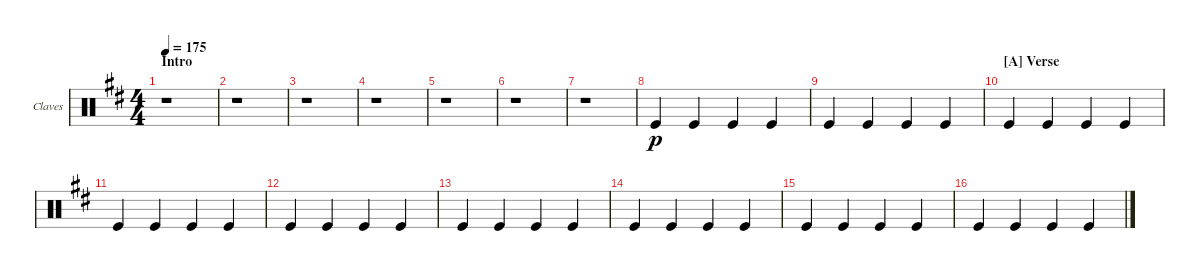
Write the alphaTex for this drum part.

\defaultSystemsLayout 4
\bracketExtendMode groupsimilarinstruments
\firstSystemTrackNameOrientation horizontal
\otherSystemsTrackNameOrientation horizontal
\track ("Claves" "Claves") {instrument percussion}
\staff {score}
\articulation defaults
\ts (4 4)
\section ("" "Intro")
\tempo 175
\clef neutral
\scale
0.517241
\ks d
r.1{dy p} |
\scale
0.241379 r.1 |
\scale
0.241379 r.1 |
\scale
0.333333 r.1 |
\scale
0.333333 r.1 |
\scale
0.333333 r.1 |
\scale
0.333333 r.1 |
\scale
0.333333 "Kick (hit)".4 "Kick (hit)".4 "Kick (hit)".4 "Kick (hit)".4 |
\scale
0.333333 "Kick (hit)".4 "Kick (hit)".4 "Kick (hit)".4 "Kick (hit)".4 |
\section ("A" "Verse")
\scale
0.333333 "Kick (hit)".4 "Kick (hit)".4 "Kick (hit)".4 "Kick (hit)".4 |
\scale
0.333333 "Kick (hit)".4 "Kick (hit)".4 "Kick (hit)".4 "Kick (hit)".4 |
\scale
0.333333 "Kick (hit)".4 "Kick (hit)".4 "Kick (hit)".4 "Kick (hit)".4 |
\scale
0.333333 "Kick (hit)".4 "Kick (hit)".4 "Kick (hit)".4 "Kick (hit)".4 |
\scale
0.333333 "Kick (hit)".4 "Kick (hit)".4 "Kick (hit)".4 "Kick (hit)".4 |
\scale
0.333333 "Kick (hit)".4 "Kick (hit)".4 "Kick (hit)".4 "Kick (hit)".4 |
\scale
0.333333 "Kick (hit)".4 "Kick (hit)".4 "Kick (hit)".4 "Kick (hit)".4
